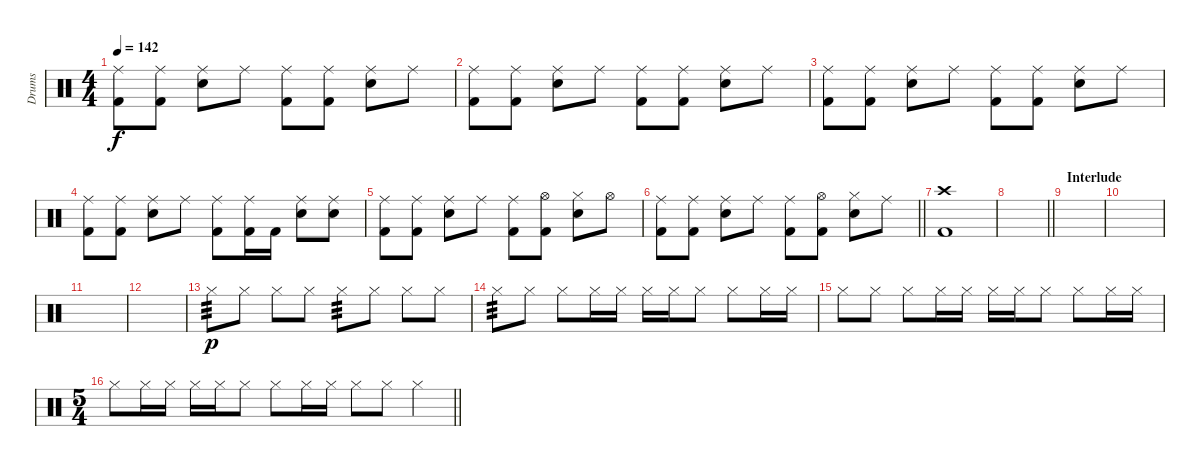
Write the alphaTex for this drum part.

\track ("Drums" "Drums") {instrument percussion}
\staff {score}
\articulation defaults
\ts (4 4)
\tempo 142
\clef neutral
\ks c
("Ride (middle)" "Kick (hit) 2").8{dy f} ("Ride (middle)" "Kick (hit) 2").8 ("Ride (middle)" "Electric Snare (hit)").8 "Ride (middle)".8 ("Ride (middle)" "Kick (hit) 2").8 ("Ride (middle)" "Kick (hit) 2").8 ("Ride (middle)" "Electric Snare (hit)").8 "Ride (middle)".8 |
("Ride (middle)" "Kick (hit) 2").8 ("Ride (middle)" "Kick (hit) 2").8 ("Ride (middle)" "Electric Snare (hit)").8 "Ride (middle)".8 ("Ride (middle)" "Kick (hit) 2").8 ("Ride (middle)" "Kick (hit) 2").8 ("Ride (middle)" "Electric Snare (hit)").8 "Ride (middle)".8 |
("Ride (middle)" "Kick (hit) 2").8 ("Ride (middle)" "Kick (hit) 2").8 ("Ride (middle)" "Electric Snare (hit)").8 "Ride (middle)".8 ("Ride (middle)" "Kick (hit) 2").8 ("Ride (middle)" "Kick (hit) 2").8 ("Ride (middle)" "Electric Snare (hit)").8 "Ride (middle)".8 |
("Ride (middle)" "Kick (hit) 2").8 ("Ride (middle)" "Kick (hit) 2").8 ("Ride (middle)" "Electric Snare (hit)").8 "Ride (middle)".8 ("Ride (middle)" "Kick (hit) 2").8 ("Ride (middle)" "Kick (hit) 2").16 "Kick (hit) 2".16 ("Ride (middle)" "Electric Snare (hit)").8 ("Ride (middle)" "Electric Snare (hit)").8 |
("Ride (middle)" "Kick (hit) 2").8 ("Ride (middle)" "Kick (hit) 2").8 ("Ride (middle)" "Electric Snare (hit)").8 "Ride (middle)".8 ("Ride (middle)" "Kick (hit) 2").8 ("Hi-Hat (open)" "Kick (hit) 2").8 ("Hi-Hat (closed)" "Electric Snare (hit)").8 "Hi-Hat (open)".8 |
\barLineRight lightlight
("Ride (middle)" "Kick (hit) 2").8 ("Ride (middle)" "Kick (hit) 2").8 ("Ride (middle)" "Electric Snare (hit)").8 "Ride (middle)".8 ("Ride (middle)" "Kick (hit) 2").8 ("Hi-Hat (open)" "Kick (hit) 2").8 ("Hi-Hat (closed)" "Electric Snare (hit)").8 "Ride (middle)".8 |
("Crash high (hit)" "Kick (hit) 2").1 |
\barLineRight lightlight
|
\section ("" "Interlude")
|
|
|
|
"Hi-Hat (closed)".8{tp 3 dy p} "Hi-Hat (closed)".8 "Hi-Hat (closed)".8 "Hi-Hat (closed)".8 "Hi-Hat (closed)".8{tp 3} "Hi-Hat (closed)".8 "Hi-Hat (closed)".8 "Hi-Hat (closed)".8 |
"Hi-Hat (closed)".8{tp 3} "Hi-Hat (closed)".8 "Hi-Hat (closed)".8 "Hi-Hat (closed)".16 "Hi-Hat (closed)".16 "Hi-Hat (closed)".16 "Hi-Hat (closed)".16 "Hi-Hat (closed)".8 "Hi-Hat (closed)".8 "Hi-Hat (closed)".16 "Hi-Hat (closed)".16 |
"Hi-Hat (closed)".8 "Hi-Hat (closed)".8 "Hi-Hat (closed)".8 "Hi-Hat (closed)".16 "Hi-Hat (closed)".16 "Hi-Hat (closed)".16 "Hi-Hat (closed)".16 "Hi-Hat (closed)".8 "Hi-Hat (closed)".8 "Hi-Hat (closed)".16 "Hi-Hat (closed)".16 |
\ts (5 4)
\barLineRight lightlight "Hi-Hat (closed)".8 "Hi-Hat (closed)".16 "Hi-Hat (closed)".16 "Hi-Hat (closed)".16 "Hi-Hat (closed)".16 "Hi-Hat (closed)".8 "Hi-Hat (closed)".8 "Hi-Hat (closed)".16 "Hi-Hat (closed)".16 "Hi-Hat (closed)".8 "Hi-Hat (closed)".8 "Hi-Hat (closed)".4
